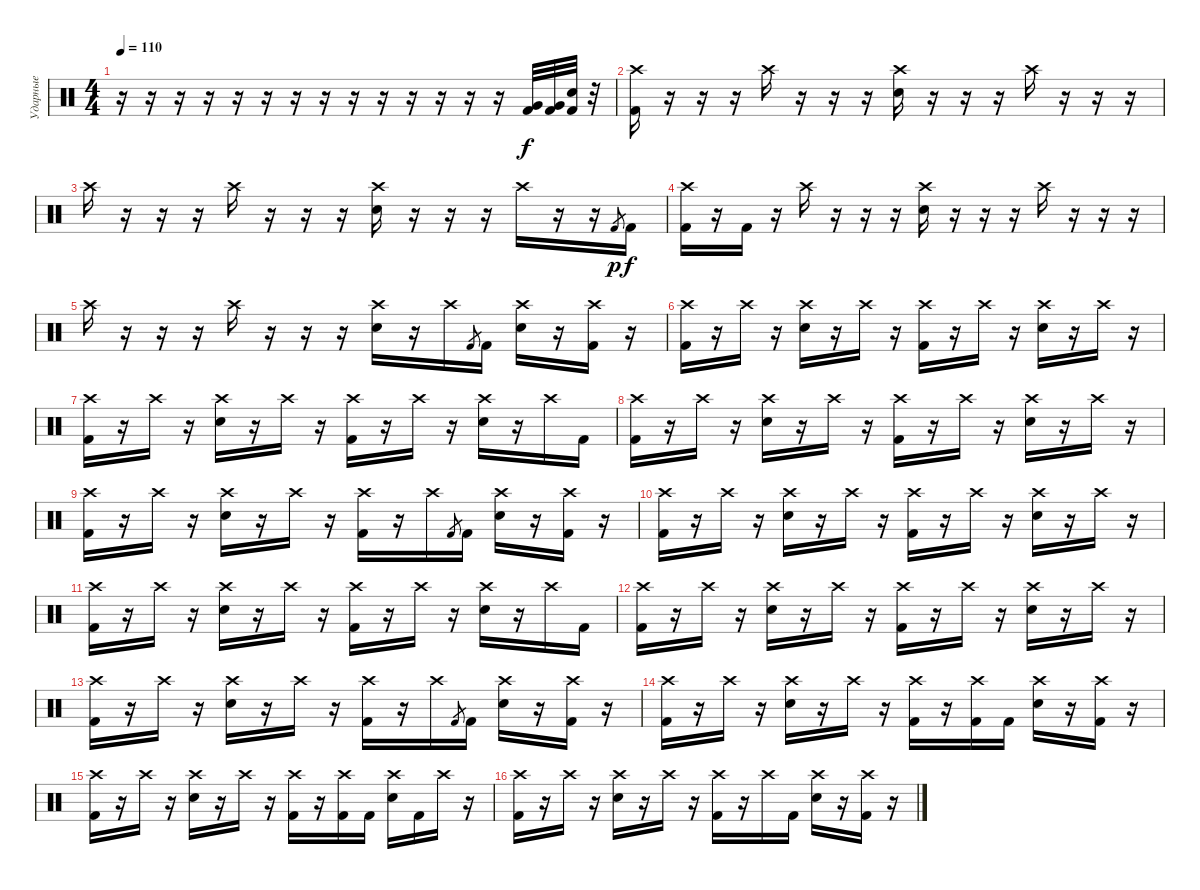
\track ("Ударные" "Ударные") {instrument percussion}
\staff {score}
\articulation defaults
\ts (4 4)
\tempo 110
\clef neutral
\ks c
r.16{dy f} r.16 r.16 r.16 r.16 r.16 r.16 r.16 r.16 r.16 r.16 r.16 r.16 r.16 ("Very Low Tom (hit)" "Kick (hit) 2").32 ("Very Low Tom (hit)" "Kick (hit) 2").32 ("Electric Snare (hit)" "Kick (hit) 2").32 r.32 |
("Crash high (hit)" "Kick (hit) 2").16 r.16 r.16 r.16 "Crash high (hit)".16 r.16 r.16 r.16 ("Crash high (hit)" "Electric Snare (hit)").16 r.16 r.16 r.16 "Crash high (hit)".16 r.16 r.16 r.16 |
"Crash high (hit)".16 r.16 r.16 r.16 "Crash high (hit)".16 r.16 r.16 r.16 ("Crash high (hit)" "Electric Snare (hit)").16 r.16 r.16 r.16 "Crash high (hit)".16 r.16 r.16 "Kick (hit) 2".8{gr dy p} "Kick (hit) 2".16{dy f} |
("Crash high (hit)" "Kick (hit) 2").16 r.16 "Kick (hit) 2".16 r.16 "Crash high (hit)".16 r.16 r.16 r.16 ("Crash high (hit)" "Electric Snare (hit)").16 r.16 r.16 r.16 "Crash high (hit)".16 r.16 r.16 r.16 |
"Crash high (hit)".16 r.16 r.16 r.16 "Crash high (hit)".16 r.16 r.16 r.16 ("Crash high (hit)" "Electric Snare (hit)").16 r.16 "Crash high (hit)".16 "Kick (hit) 2".8{gr} "Kick (hit) 2".16 ("Crash high (hit)" "Electric Snare (hit)").16 r.16 ("Crash high (hit)" "Kick (hit) 2").16 r.16 |
("Crash high (hit)" "Kick (hit) 2").16 r.16 "Crash high (hit)".16 r.16 ("Crash high (hit)" "Electric Snare (hit)").16 r.16 "Crash high (hit)".16 r.16 ("Crash high (hit)" "Kick (hit) 2").16 r.16 "Crash high (hit)".16 r.16 ("Crash high (hit)" "Electric Snare (hit)").16 r.16 "Crash high (hit)".16 r.16 |
("Crash high (hit)" "Kick (hit) 2").16 r.16 "Crash high (hit)".16 r.16 ("Crash high (hit)" "Electric Snare (hit)").16 r.16 "Crash high (hit)".16 r.16 ("Crash high (hit)" "Kick (hit) 2").16 r.16 "Crash high (hit)".16 r.16 ("Crash high (hit)" "Electric Snare (hit)").16 r.16 "Crash high (hit)".16 "Kick (hit) 2".16 |
("Crash high (hit)" "Kick (hit) 2").16 r.16 "Crash high (hit)".16 r.16 ("Crash high (hit)" "Electric Snare (hit)").16 r.16 "Crash high (hit)".16 r.16 ("Crash high (hit)" "Kick (hit) 2").16 r.16 "Crash high (hit)".16 r.16 ("Crash high (hit)" "Electric Snare (hit)").16 r.16 "Crash high (hit)".16 r.16 |
("Crash high (hit)" "Kick (hit) 2").16 r.16 "Crash high (hit)".16 r.16 ("Crash high (hit)" "Electric Snare (hit)").16 r.16 "Crash high (hit)".16 r.16 ("Crash high (hit)" "Kick (hit) 2").16 r.16 "Crash high (hit)".16 "Kick (hit) 2".8{gr} "Kick (hit) 2".16 ("Crash high (hit)" "Electric Snare (hit)").16 r.16 ("Crash high (hit)" "Kick (hit) 2").16 r.16 |
("Crash high (hit)" "Kick (hit) 2").16 r.16 "Crash high (hit)".16 r.16 ("Crash high (hit)" "Electric Snare (hit)").16 r.16 "Crash high (hit)".16 r.16 ("Crash high (hit)" "Kick (hit) 2").16 r.16 "Crash high (hit)".16 r.16 ("Crash high (hit)" "Electric Snare (hit)").16 r.16 "Crash high (hit)".16 r.16 |
("Crash high (hit)" "Kick (hit) 2").16 r.16 "Crash high (hit)".16 r.16 ("Crash high (hit)" "Electric Snare (hit)").16 r.16 "Crash high (hit)".16 r.16 ("Crash high (hit)" "Kick (hit) 2").16 r.16 "Crash high (hit)".16 r.16 ("Crash high (hit)" "Electric Snare (hit)").16 r.16 "Crash high (hit)".16 "Kick (hit) 2".16 |
("Crash high (hit)" "Kick (hit) 2").16 r.16 "Crash high (hit)".16 r.16 ("Crash high (hit)" "Electric Snare (hit)").16 r.16 "Crash high (hit)".16 r.16 ("Crash high (hit)" "Kick (hit) 2").16 r.16 "Crash high (hit)".16 r.16 ("Crash high (hit)" "Electric Snare (hit)").16 r.16 "Crash high (hit)".16 r.16 |
("Crash high (hit)" "Kick (hit) 2").16 r.16 "Crash high (hit)".16 r.16 ("Crash high (hit)" "Electric Snare (hit)").16 r.16 "Crash high (hit)".16 r.16 ("Crash high (hit)" "Kick (hit) 2").16 r.16 "Crash high (hit)".16 "Kick (hit) 2".8{gr} "Kick (hit) 2".16 ("Crash high (hit)" "Electric Snare (hit)").16 r.16 ("Crash high (hit)" "Kick (hit) 2").16 r.16 |
("Crash high (hit)" "Kick (hit) 2").16 r.16 "Crash high (hit)".16 r.16 ("Crash high (hit)" "Electric Snare (hit)").16 r.16 "Crash high (hit)".16 r.16 ("Crash high (hit)" "Kick (hit) 2").16 r.16 ("Crash high (hit)" "Kick (hit) 2").16 "Kick (hit) 2".16 ("Crash high (hit)" "Electric Snare (hit)").16 r.16 ("Crash high (hit)" "Kick (hit) 2").16 r.16 |
("Crash high (hit)" "Kick (hit) 2").16 r.16 "Crash high (hit)".16 r.16 ("Crash high (hit)" "Electric Snare (hit)").16 r.16 "Crash high (hit)".16 r.16 ("Crash high (hit)" "Kick (hit) 2").16 r.16 ("Crash high (hit)" "Kick (hit) 2").16 "Kick (hit) 2".16 ("Crash high (hit)" "Electric Snare (hit)").16 "Kick (hit) 2".16 "Crash high (hit)".16 r.16 |
("Crash high (hit)" "Kick (hit) 2").16 r.16 "Crash high (hit)".16 r.16 ("Crash high (hit)" "Electric Snare (hit)").16 r.16 "Crash high (hit)".16 r.16 ("Crash high (hit)" "Kick (hit) 2").16 r.16 "Crash high (hit)".16 "Kick (hit) 2".16 ("Crash high (hit)" "Electric Snare (hit)").16 r.16 ("Crash high (hit)" "Kick (hit) 2").16 r.16
